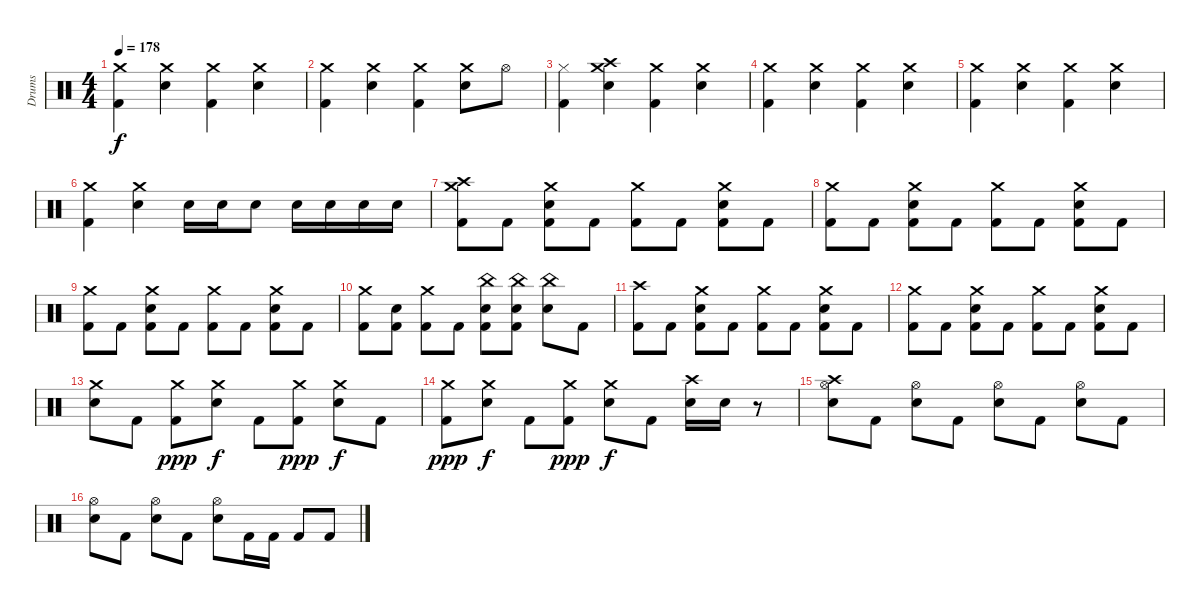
\track ("Drums" "Drums") {instrument percussion}
\staff {score}
\articulation defaults
\ts (4 4)
\tempo 178
\clef neutral
\ks c
("Crash medium (hit)" "Kick (hit) 2").4{dy f} ("Crash medium (hit)" "Electric Snare (hit)").4 ("Crash medium (hit)" "Kick (hit) 2").4 ("Crash medium (hit)" "Electric Snare (hit)").4 |
("Crash medium (hit)" "Kick (hit) 2").4 ("Crash medium (hit)" "Electric Snare (hit)").4 ("Crash medium (hit)" "Kick (hit) 2").4 ("Crash medium (hit)" "Electric Snare (hit)").8 "Hi-Hat (open)".8 |
("Hi-Hat (closed)" "Kick (hit) 2").4 ("Crash high (hit)" "Crash medium (hit)" "Electric Snare (hit)").4 ("Crash medium (hit)" "Kick (hit) 2").4 ("Crash medium (hit)" "Electric Snare (hit)").4 |
("Crash medium (hit)" "Kick (hit) 2").4 ("Crash medium (hit)" "Electric Snare (hit)").4 ("Crash medium (hit)" "Kick (hit) 2").4 ("Crash medium (hit)" "Electric Snare (hit)").4 |
("Crash medium (hit)" "Kick (hit) 2").4 ("Crash medium (hit)" "Electric Snare (hit)").4 ("Crash medium (hit)" "Kick (hit) 2").4 ("Crash medium (hit)" "Electric Snare (hit)").4 |
("Crash medium (hit)" "Kick (hit) 2").4 ("Crash medium (hit)" "Electric Snare (hit)").4 "Electric Snare (hit)".16 "Electric Snare (hit)".16 "Electric Snare (hit)".8 "Electric Snare (hit)".16 "Electric Snare (hit)".16 "Electric Snare (hit)".16 "Electric Snare (hit)".16 |
("Crash high (hit)" "Crash medium (hit)" "Kick (hit) 2").8 "Kick (hit) 2".8 ("Crash medium (hit)" "Electric Snare (hit)" "Kick (hit) 2").8 "Kick (hit) 2".8 ("Crash medium (hit)" "Kick (hit) 2").8 "Kick (hit) 2".8 ("Crash medium (hit)" "Electric Snare (hit)" "Kick (hit) 2").8 "Kick (hit) 2".8 |
("Crash medium (hit)" "Kick (hit) 2").8 "Kick (hit) 2".8 ("Crash medium (hit)" "Electric Snare (hit)" "Kick (hit) 2").8 "Kick (hit) 2".8 ("Crash medium (hit)" "Kick (hit) 2").8 "Kick (hit) 2".8 ("Crash medium (hit)" "Electric Snare (hit)" "Kick (hit) 2").8 "Kick (hit) 2".8 |
("Crash medium (hit)" "Kick (hit) 2").8 "Kick (hit) 2".8 ("Crash medium (hit)" "Electric Snare (hit)" "Kick (hit) 2").8 "Kick (hit) 2".8 ("Crash medium (hit)" "Kick (hit) 2").8 "Kick (hit) 2".8 ("Crash medium (hit)" "Electric Snare (hit)" "Kick (hit) 2").8 "Kick (hit) 2".8 |
("Crash medium (hit)" "Kick (hit) 2").8 ("Electric Snare (hit)" "Kick (hit) 2").8 ("Crash medium (hit)" "Kick (hit) 2").8 "Kick (hit) 2".8 ("China (hit)" "Electric Snare (hit)" "Kick (hit) 2").8 ("China (hit)" "Electric Snare (hit)" "Kick (hit) 2").8 ("China (hit)" "Electric Snare (hit)").8 "Kick (hit) 2".8 |
("Crash high (hit)" "Kick (hit) 2").8 "Kick (hit) 2".8 ("Crash medium (hit)" "Electric Snare (hit)" "Kick (hit) 2").8 "Kick (hit) 2".8 ("Crash medium (hit)" "Kick (hit) 2").8 "Kick (hit) 2".8 ("Crash medium (hit)" "Electric Snare (hit)" "Kick (hit) 2").8 "Kick (hit) 2".8 |
("Crash medium (hit)" "Kick (hit) 2").8 "Kick (hit) 2".8 ("Crash medium (hit)" "Electric Snare (hit)" "Kick (hit) 2").8 "Kick (hit) 2".8 ("Crash medium (hit)" "Kick (hit) 2").8 "Kick (hit) 2".8 ("Crash medium (hit)" "Electric Snare (hit)" "Kick (hit) 2").8 "Kick (hit) 2".8 |
("Crash medium (hit)" "Electric Snare (hit)").8 "Kick (hit) 2".8 ("Crash medium (hit)" "Kick (hit) 2").8{dy ppp} ("Crash medium (hit)" "Electric Snare (hit)").8{dy f} "Kick (hit) 2".8 ("Crash medium (hit)" "Kick (hit) 2").8{dy ppp} ("Crash medium (hit)" "Electric Snare (hit)").8{dy f} "Kick (hit) 2".8 |
("Crash medium (hit)" "Kick (hit) 2").8{dy ppp} ("Crash medium (hit)" "Electric Snare (hit)").8{dy f} "Kick (hit) 2".8 ("Crash medium (hit)" "Kick (hit) 2").8{dy ppp} ("Crash medium (hit)" "Electric Snare (hit)").8{dy f} "Kick (hit) 2".8 ("Crash high (hit)" "Electric Snare (hit)").16 "Electric Snare (hit)".16 r.8 |
("Crash high (hit)" "Hi-Hat (open)" "Electric Snare (hit)").8 "Kick (hit) 2".8 ("Hi-Hat (open)" "Electric Snare (hit)").8 "Kick (hit) 2".8 ("Hi-Hat (open)" "Electric Snare (hit)").8 "Kick (hit) 2".8 ("Hi-Hat (open)" "Electric Snare (hit)").8 "Kick (hit) 2".8 |
("Hi-Hat (open)" "Electric Snare (hit)").8 "Kick (hit) 2".8 ("Hi-Hat (open)" "Electric Snare (hit)").8 "Kick (hit) 2".8 ("Hi-Hat (open)" "Electric Snare (hit)").8 "Kick (hit) 2".16 "Kick (hit) 2".16 "Kick (hit) 2".8 "Kick (hit) 2".8
